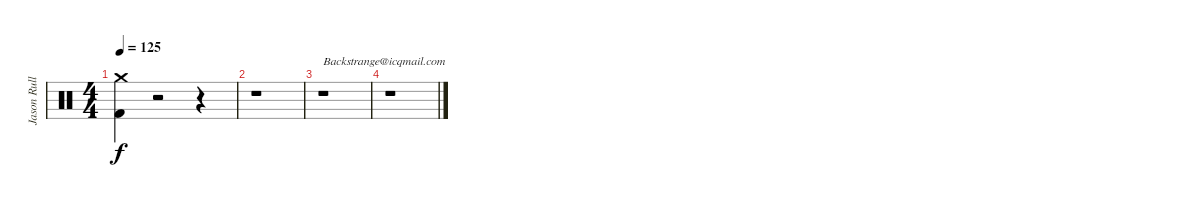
\track ("Jason Rullo" "Jason Rull") {instrument percussion}
\staff {score}
\articulation defaults
\ts (4 4)
\tempo 125
\clef neutral
\ks c
("Crash medium (hit)" "Kick (hit) 2").4{dy f} r.2 r.4 |
r.1 |
r.1{txt "Backstrange@icqmail.com"} |
r.1
